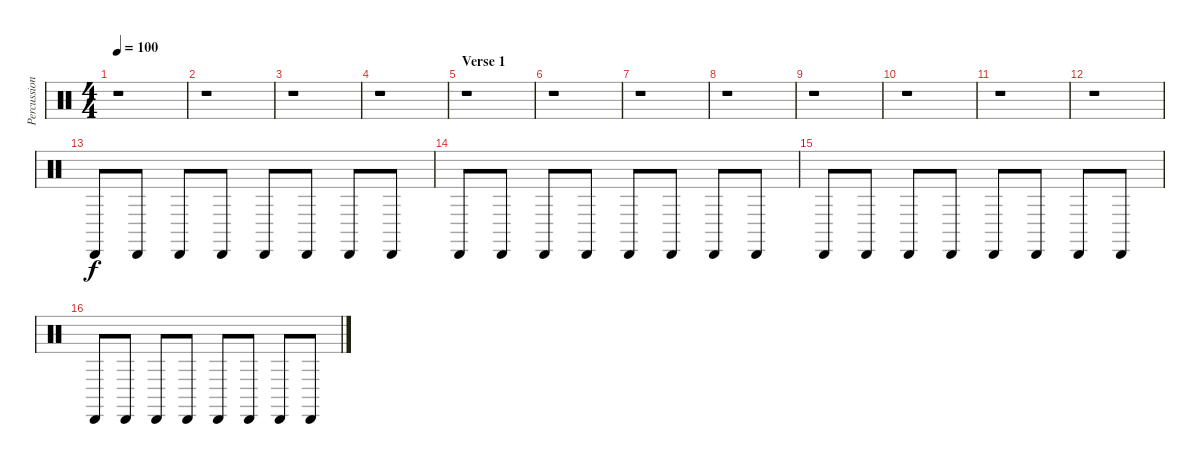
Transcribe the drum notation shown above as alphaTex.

\track ("Percussion" "Percussion") {instrument percussion}
\staff {score}
\articulation defaults
\ts (4 4)
\tempo 100
\clef neutral
\ks c
r.1{dy f} |
r.1 |
r.1 |
r.1 |
\section ("" "Verse 1")
r.1 |
r.1 |
r.1 |
r.1 |
r.1 |
r.1 |
r.1 |
r.1 |
"Cabasa (hit)".8 "Cabasa (hit)".8 "Cabasa (hit)".8 "Cabasa (hit)".8 "Cabasa (hit)".8 "Cabasa (hit)".8 "Cabasa (hit)".8 "Cabasa (hit)".8 |
"Cabasa (hit)".8 "Cabasa (hit)".8 "Cabasa (hit)".8 "Cabasa (hit)".8 "Cabasa (hit)".8 "Cabasa (hit)".8 "Cabasa (hit)".8 "Cabasa (hit)".8 |
"Cabasa (hit)".8 "Cabasa (hit)".8 "Cabasa (hit)".8 "Cabasa (hit)".8 "Cabasa (hit)".8 "Cabasa (hit)".8 "Cabasa (hit)".8 "Cabasa (hit)".8 |
"Cabasa (hit)".8 "Cabasa (hit)".8 "Cabasa (hit)".8 "Cabasa (hit)".8 "Cabasa (hit)".8 "Cabasa (hit)".8 "Cabasa (hit)".8 "Cabasa (hit)".8
